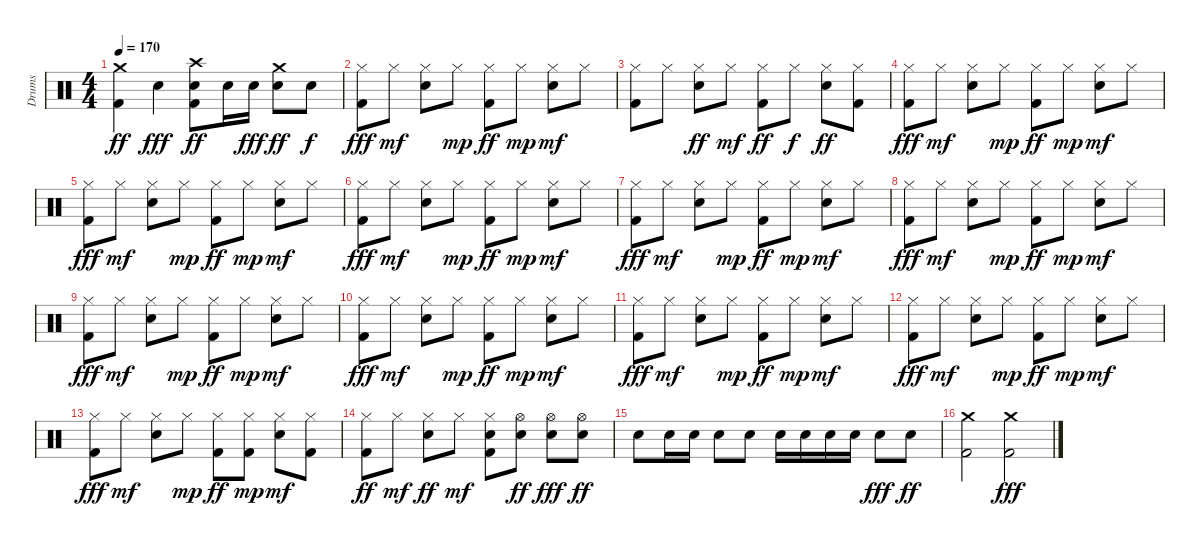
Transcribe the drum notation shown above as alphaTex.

\track ("Drums" "Drums") {instrument percussion}
\staff {score}
\articulation defaults
\ts (4 4)
\tempo 170
\clef neutral
\ks c
("Crash medium (hit)" "Kick (hit) 2").4{dy ff} "Snare (hit) 2".4{dy fff} ("Snare (hit) 2" "Kick (hit) 2" "Crash high (hit)").8{dy ff} "Snare (hit) 2".16 "Snare (hit) 2".16{dy fff} ("Snare (hit) 2" "Crash medium (hit)").8{dy ff} "Snare (hit) 2".8{dy f} |
("Hi-Hat (closed)" "Kick (hit) 2").8{dy fff} "Hi-Hat (closed)".8{dy mf} ("Hi-Hat (closed)" "Snare (hit) 2").8 "Hi-Hat (closed)".8{dy mp} ("Hi-Hat (closed)" "Kick (hit) 2").8{dy ff} "Hi-Hat (closed)".8{dy mp} ("Hi-Hat (closed)" "Snare (hit) 2").8{dy mf} "Hi-Hat (closed)".8 |
("Hi-Hat (closed)" "Kick (hit) 2").8 "Hi-Hat (closed)".8 ("Hi-Hat (closed)" "Snare (hit) 2").8{dy ff} "Hi-Hat (closed)".8{dy mf} ("Hi-Hat (closed)" "Kick (hit) 2").8{dy ff} "Hi-Hat (closed)".8{dy f} ("Hi-Hat (closed)" "Snare (hit) 2").8{dy ff} ("Hi-Hat (closed)" "Kick (hit) 2").8 |
("Hi-Hat (closed)" "Kick (hit) 2").8{dy fff} "Hi-Hat (closed)".8{dy mf} ("Hi-Hat (closed)" "Snare (hit) 2").8 "Hi-Hat (closed)".8{dy mp} ("Hi-Hat (closed)" "Kick (hit) 2").8{dy ff} "Hi-Hat (closed)".8{dy mp} ("Hi-Hat (closed)" "Snare (hit) 2").8{dy mf} "Hi-Hat (closed)".8 |
("Hi-Hat (closed)" "Kick (hit) 2").8{dy fff} "Hi-Hat (closed)".8{dy mf} ("Hi-Hat (closed)" "Snare (hit) 2").8 "Hi-Hat (closed)".8{dy mp} ("Hi-Hat (closed)" "Kick (hit) 2").8{dy ff} "Hi-Hat (closed)".8{dy mp} ("Hi-Hat (closed)" "Snare (hit) 2").8{dy mf} "Hi-Hat (closed)".8 |
("Hi-Hat (closed)" "Kick (hit) 2").8{dy fff} "Hi-Hat (closed)".8{dy mf} ("Hi-Hat (closed)" "Snare (hit) 2").8 "Hi-Hat (closed)".8{dy mp} ("Hi-Hat (closed)" "Kick (hit) 2").8{dy ff} "Hi-Hat (closed)".8{dy mp} ("Hi-Hat (closed)" "Snare (hit) 2").8{dy mf} "Hi-Hat (closed)".8 |
("Hi-Hat (closed)" "Kick (hit) 2").8{dy fff} "Hi-Hat (closed)".8{dy mf} ("Hi-Hat (closed)" "Snare (hit) 2").8 "Hi-Hat (closed)".8{dy mp} ("Hi-Hat (closed)" "Kick (hit) 2").8{dy ff} "Hi-Hat (closed)".8{dy mp} ("Hi-Hat (closed)" "Snare (hit) 2").8{dy mf} "Hi-Hat (closed)".8 |
("Hi-Hat (closed)" "Kick (hit) 2").8{dy fff} "Hi-Hat (closed)".8{dy mf} ("Hi-Hat (closed)" "Snare (hit) 2").8 "Hi-Hat (closed)".8{dy mp} ("Hi-Hat (closed)" "Kick (hit) 2").8{dy ff} "Hi-Hat (closed)".8{dy mp} ("Hi-Hat (closed)" "Snare (hit) 2").8{dy mf} "Hi-Hat (closed)".8 |
("Hi-Hat (closed)" "Kick (hit) 2").8{dy fff} "Hi-Hat (closed)".8{dy mf} ("Hi-Hat (closed)" "Snare (hit) 2").8 "Hi-Hat (closed)".8{dy mp} ("Hi-Hat (closed)" "Kick (hit) 2").8{dy ff} "Hi-Hat (closed)".8{dy mp} ("Hi-Hat (closed)" "Snare (hit) 2").8{dy mf} "Hi-Hat (closed)".8 |
("Hi-Hat (closed)" "Kick (hit) 2").8{dy fff} "Hi-Hat (closed)".8{dy mf} ("Hi-Hat (closed)" "Snare (hit) 2").8 "Hi-Hat (closed)".8{dy mp} ("Hi-Hat (closed)" "Kick (hit) 2").8{dy ff} "Hi-Hat (closed)".8{dy mp} ("Hi-Hat (closed)" "Snare (hit) 2").8{dy mf} "Hi-Hat (closed)".8 |
("Hi-Hat (closed)" "Kick (hit) 2").8{dy fff} "Hi-Hat (closed)".8{dy mf} ("Hi-Hat (closed)" "Snare (hit) 2").8 "Hi-Hat (closed)".8{dy mp} ("Hi-Hat (closed)" "Kick (hit) 2").8{dy ff} "Hi-Hat (closed)".8{dy mp} ("Hi-Hat (closed)" "Snare (hit) 2").8{dy mf} "Hi-Hat (closed)".8 |
("Hi-Hat (closed)" "Kick (hit) 2").8{dy fff} "Hi-Hat (closed)".8{dy mf} ("Hi-Hat (closed)" "Snare (hit) 2").8 "Hi-Hat (closed)".8{dy mp} ("Hi-Hat (closed)" "Kick (hit) 2").8{dy ff} "Hi-Hat (closed)".8{dy mp} ("Hi-Hat (closed)" "Snare (hit) 2").8{dy mf} "Hi-Hat (closed)".8 |
("Hi-Hat (closed)" "Kick (hit) 2").8{dy fff} "Hi-Hat (closed)".8{dy mf} ("Hi-Hat (closed)" "Snare (hit) 2").8 "Hi-Hat (closed)".8{dy mp} ("Hi-Hat (closed)" "Kick (hit) 2").8{dy ff} ("Hi-Hat (closed)" "Kick (hit) 2").8{dy mp} ("Hi-Hat (closed)" "Snare (hit) 2").8{dy mf} ("Hi-Hat (closed)" "Kick (hit) 2").8 |
("Hi-Hat (closed)" "Kick (hit) 2").8{dy ff} "Hi-Hat (closed)".8{dy mf} ("Hi-Hat (closed)" "Snare (hit) 2").8{dy ff} "Hi-Hat (closed)".8{dy mf} ("Kick (hit) 2" "Snare (hit) 2" "Hi-Hat (closed)").8 ("Hi-Hat (open)" "Snare (hit) 2").8{dy ff} ("Hi-Hat (open)" "Snare (hit) 2").8{dy fff} ("Hi-Hat (open)" "Snare (hit) 2").8{dy ff} |
"Snare (hit) 2".8 "Snare (hit) 2".16 "Snare (hit) 2".16 "Snare (hit) 2".8 "Snare (hit) 2".8 "Snare (hit) 2".16 "Snare (hit) 2".16 "Snare (hit) 2".16 "Snare (hit) 2".16 "Snare (hit) 2".8{dy fff} "Snare (hit) 2".8{dy ff} |
("Kick (hit) 2" "Crash medium (hit)").2 ("Kick (hit) 2" "Crash medium (hit)").2{dy fff}
